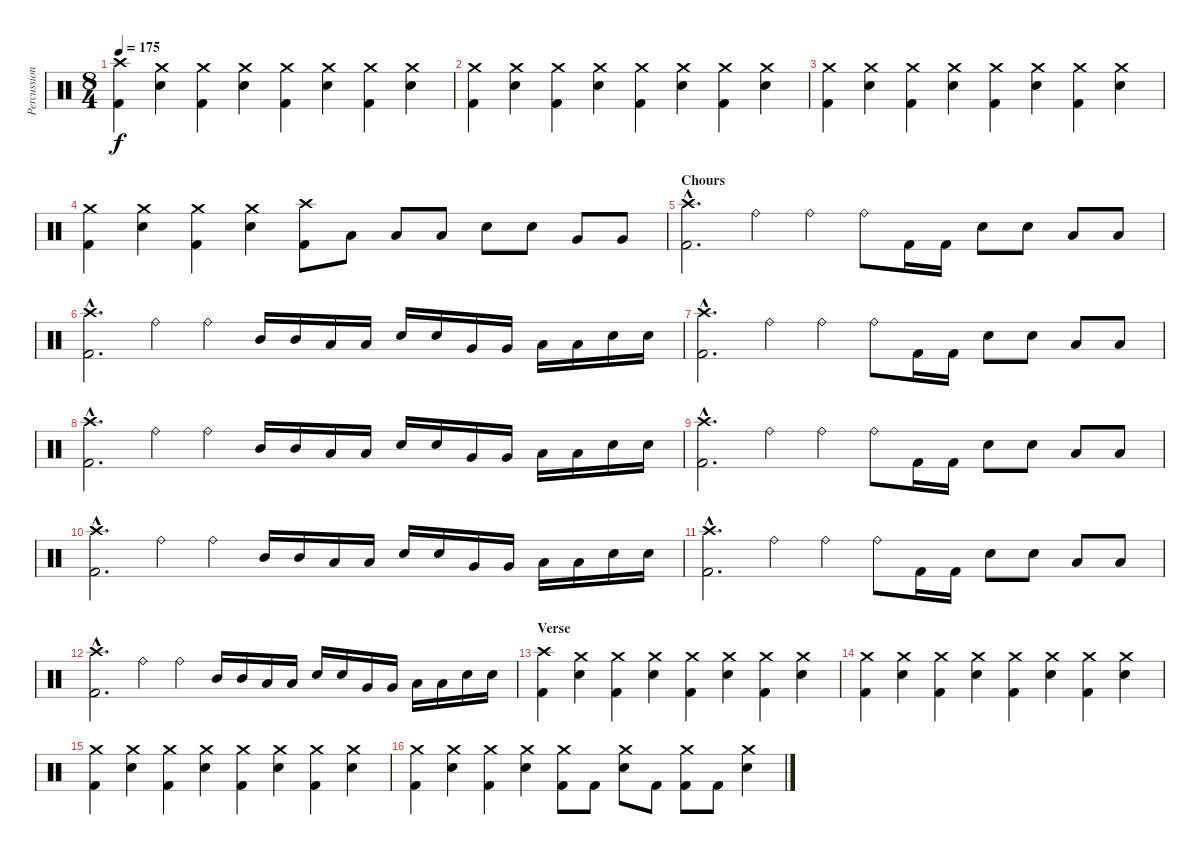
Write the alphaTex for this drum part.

\track ("Percussion" "Percussion") {instrument percussion}
\staff {score}
\articulation defaults
\ts (8 4)
\tempo 175
\clef neutral
\ks c
("Kick (hit) 2" "Crash high (hit)").4{dy f} ("Electric Snare (hit)" "Crash medium (hit)").4 ("Kick (hit) 2" "Crash medium (hit)").4 ("Electric Snare (hit)" "Crash medium (hit)").4 ("Kick (hit) 2" "Crash medium (hit)").4 ("Electric Snare (hit)" "Crash medium (hit)").4 ("Kick (hit) 2" "Crash medium (hit)").4 ("Electric Snare (hit)" "Crash medium (hit)").4 |
("Kick (hit) 2" "Crash medium (hit)").4 ("Electric Snare (hit)" "Crash medium (hit)").4 ("Kick (hit) 2" "Crash medium (hit)").4 ("Electric Snare (hit)" "Crash medium (hit)").4 ("Kick (hit) 2" "Crash medium (hit)").4 ("Electric Snare (hit)" "Crash medium (hit)").4 ("Kick (hit) 2" "Crash medium (hit)").4 ("Electric Snare (hit)" "Crash medium (hit)").4 |
("Kick (hit) 2" "Crash medium (hit)").4 ("Electric Snare (hit)" "Crash medium (hit)").4 ("Kick (hit) 2" "Crash medium (hit)").4 ("Electric Snare (hit)" "Crash medium (hit)").4 ("Kick (hit) 2" "Crash medium (hit)").4 ("Electric Snare (hit)" "Crash medium (hit)").4 ("Kick (hit) 2" "Crash medium (hit)").4 ("Electric Snare (hit)" "Crash medium (hit)").4 |
("Kick (hit) 2" "Crash medium (hit)").4 ("Electric Snare (hit)" "Crash medium (hit)").4 ("Kick (hit) 2" "Crash medium (hit)").4 ("Electric Snare (hit)" "Crash medium (hit)").4 ("Kick (hit) 2" "Crash high (hit)").8 "Low Tom (hit)".8 "Low Tom (hit)".8 "Low Tom (hit)".8 "Electric Snare (hit)".8 "Electric Snare (hit)".8 "Very Low Tom (hit)".8 "Very Low Tom (hit)".8 |
\section ("" "Chours")
("Crash high (hit)"{hac} "Kick (hit) 2"{hac}).2{d} "Ride (bell)".4 "Ride (bell)".4 "Ride (bell)".8 "Kick (hit) 2".16 "Kick (hit) 2".16 "Electric Snare (hit)".8 "Electric Snare (hit)".8 "Low Floor Tom (hit)".8 "Low Floor Tom (hit)".8 |
("Crash high (hit)"{hac} "Kick (hit) 2"{hac}).2{d} "Ride (bell)".4 "Ride (bell)".4 "Mid Tom (hit)".16 "Mid Tom (hit)".16 "Low Tom (hit)".16 "Low Tom (hit)".16 "Electric Snare (hit)".16 "Electric Snare (hit)".16 "Very Low Tom (hit)".16 "Very Low Tom (hit)".16 "Low Floor Tom (hit)".16 "Low Floor Tom (hit)".16 "Electric Snare (hit)".16 "Electric Snare (hit)".16 |
("Crash high (hit)"{hac} "Kick (hit) 2"{hac}).2{d} "Ride (bell)".4 "Ride (bell)".4 "Ride (bell)".8 "Kick (hit) 2".16 "Kick (hit) 2".16 "Electric Snare (hit)".8 "Electric Snare (hit)".8 "Low Floor Tom (hit)".8 "Low Floor Tom (hit)".8 |
("Crash high (hit)"{hac} "Kick (hit) 2"{hac}).2{d} "Ride (bell)".4 "Ride (bell)".4 "Mid Tom (hit)".16 "Mid Tom (hit)".16 "Low Tom (hit)".16 "Low Tom (hit)".16 "Electric Snare (hit)".16 "Electric Snare (hit)".16 "Very Low Tom (hit)".16 "Very Low Tom (hit)".16 "Low Floor Tom (hit)".16 "Low Floor Tom (hit)".16 "Electric Snare (hit)".16 "Electric Snare (hit)".16 |
("Crash high (hit)"{hac} "Kick (hit) 2"{hac}).2{d} "Ride (bell)".4 "Ride (bell)".4 "Ride (bell)".8 "Kick (hit) 2".16 "Kick (hit) 2".16 "Electric Snare (hit)".8 "Electric Snare (hit)".8 "Low Floor Tom (hit)".8 "Low Floor Tom (hit)".8 |
("Crash high (hit)"{hac} "Kick (hit) 2"{hac}).2{d} "Ride (bell)".4 "Ride (bell)".4 "Mid Tom (hit)".16 "Mid Tom (hit)".16 "Low Tom (hit)".16 "Low Tom (hit)".16 "Electric Snare (hit)".16 "Electric Snare (hit)".16 "Very Low Tom (hit)".16 "Very Low Tom (hit)".16 "Low Floor Tom (hit)".16 "Low Floor Tom (hit)".16 "Electric Snare (hit)".16 "Electric Snare (hit)".16 |
("Crash high (hit)"{hac} "Kick (hit) 2"{hac}).2{d} "Ride (bell)".4 "Ride (bell)".4 "Ride (bell)".8 "Kick (hit) 2".16 "Kick (hit) 2".16 "Electric Snare (hit)".8 "Electric Snare (hit)".8 "Low Floor Tom (hit)".8 "Low Floor Tom (hit)".8 |
("Crash high (hit)"{hac} "Kick (hit) 2"{hac}).2{d} "Ride (bell)".4 "Ride (bell)".4 "Mid Tom (hit)".16 "Mid Tom (hit)".16 "Low Tom (hit)".16 "Low Tom (hit)".16 "Electric Snare (hit)".16 "Electric Snare (hit)".16 "Very Low Tom (hit)".16 "Very Low Tom (hit)".16 "Low Floor Tom (hit)".16 "Low Floor Tom (hit)".16 "Electric Snare (hit)".16 "Electric Snare (hit)".16 |
\section ("" "Verse")
("Kick (hit) 2" "Crash high (hit)").4 ("Electric Snare (hit)" "Crash medium (hit)").4 ("Kick (hit) 2" "Crash medium (hit)").4 ("Electric Snare (hit)" "Crash medium (hit)").4 ("Kick (hit) 2" "Crash medium (hit)").4 ("Electric Snare (hit)" "Crash medium (hit)").4 ("Kick (hit) 2" "Crash medium (hit)").4 ("Electric Snare (hit)" "Crash medium (hit)").4 |
("Kick (hit) 2" "Crash medium (hit)").4 ("Electric Snare (hit)" "Crash medium (hit)").4 ("Kick (hit) 2" "Crash medium (hit)").4 ("Electric Snare (hit)" "Crash medium (hit)").4 ("Kick (hit) 2" "Crash medium (hit)").4 ("Electric Snare (hit)" "Crash medium (hit)").4 ("Kick (hit) 2" "Crash medium (hit)").4 ("Electric Snare (hit)" "Crash medium (hit)").4 |
("Kick (hit) 2" "Crash medium (hit)").4 ("Electric Snare (hit)" "Crash medium (hit)").4 ("Kick (hit) 2" "Crash medium (hit)").4 ("Electric Snare (hit)" "Crash medium (hit)").4 ("Kick (hit) 2" "Crash medium (hit)").4 ("Electric Snare (hit)" "Crash medium (hit)").4 ("Kick (hit) 2" "Crash medium (hit)").4 ("Electric Snare (hit)" "Crash medium (hit)").4 |
("Kick (hit) 2" "Crash medium (hit)").4 ("Electric Snare (hit)" "Crash medium (hit)").4 ("Kick (hit) 2" "Crash medium (hit)").4 ("Electric Snare (hit)" "Crash medium (hit)").4 ("Kick (hit) 2" "Crash medium (hit)").8 "Kick (hit) 2".8 ("Electric Snare (hit)" "Crash medium (hit)").8 "Kick (hit) 2".8 ("Kick (hit) 2" "Crash medium (hit)").8 "Kick (hit) 2".8 ("Electric Snare (hit)" "Crash medium (hit)").4
